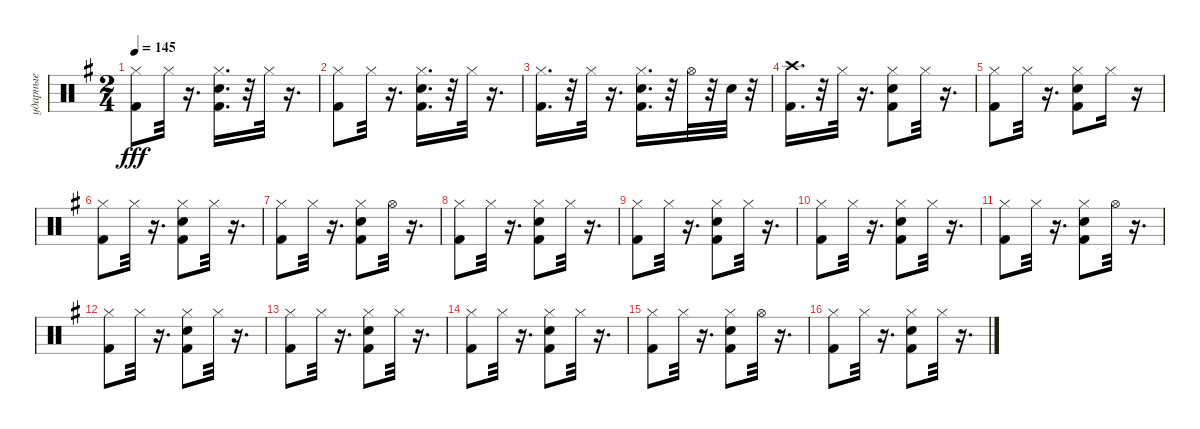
\track ("ударные" "ударные") {instrument percussion}
\staff {score}
\articulation defaults
\ts (2 4)
\tempo 145
\clef neutral
\ks eminor
("Kick (hit) 2" "Hi-Hat (closed)").8{dy fff} "Hi-Hat (closed)".32 r.16{d} ("Snare (hit) 2" "Kick (hit) 2" "Hi-Hat (closed)").16{d} r.32 "Hi-Hat (closed)".32 r.16{d} |
("Kick (hit) 2" "Hi-Hat (closed)").8 "Hi-Hat (closed)".32 r.16{d} ("Snare (hit) 2" "Kick (hit) 2" "Hi-Hat (closed)").16{d} r.32 "Hi-Hat (closed)".32 r.16{d} |
("Kick (hit) 2" "Hi-Hat (closed)").16{d} r.32 "Hi-Hat (closed)".32 r.16{d} ("Kick (hit) 2" "Hi-Hat (closed)" "Snare (hit) 2").16{d} r.32 "Hi-Hat (open)".32 r.32 "Snare (hit) 2".32 r.32 |
("Kick (hit) 2" "Crash high (hit)").16{d} r.32 "Hi-Hat (closed)".32 r.16{d} ("Kick (hit) 2" "Snare (hit) 2" "Hi-Hat (closed)").8 "Hi-Hat (closed)".32 r.16{d} |
("Kick (hit) 2" "Hi-Hat (closed)").8 "Hi-Hat (closed)".32 r.16{d} ("Snare (hit) 2" "Kick (hit) 2" "Hi-Hat (closed)").8 "Hi-Hat (closed)".16 r.16 |
("Kick (hit) 2" "Hi-Hat (closed)").8 "Hi-Hat (closed)".32 r.16{d} ("Hi-Hat (closed)" "Snare (hit) 2" "Kick (hit) 2").8 "Hi-Hat (closed)".32 r.16{d} |
("Kick (hit) 2" "Hi-Hat (closed)").8 "Hi-Hat (closed)".32 r.16{d} ("Snare (hit) 2" "Hi-Hat (closed)" "Kick (hit) 2").8 "Hi-Hat (open)".32 r.16{d} |
("Kick (hit) 2" "Hi-Hat (closed)").8 "Hi-Hat (closed)".32 r.16{d} ("Kick (hit) 2" "Hi-Hat (closed)" "Snare (hit) 2").8 "Hi-Hat (closed)".32 r.16{d} |
("Kick (hit) 2" "Hi-Hat (closed)").8 "Hi-Hat (closed)".32 r.16{d} ("Kick (hit) 2" "Hi-Hat (closed)" "Snare (hit) 2").8 "Hi-Hat (closed)".32 r.16{d} |
("Kick (hit) 2" "Hi-Hat (closed)").8 "Hi-Hat (closed)".32 r.16{d} ("Snare (hit) 2" "Kick (hit) 2" "Hi-Hat (closed)").8 "Hi-Hat (closed)".32 r.16{d} |
("Kick (hit) 2" "Hi-Hat (closed)").8 "Hi-Hat (closed)".32 r.16{d} ("Snare (hit) 2" "Hi-Hat (closed)" "Kick (hit) 2").8 "Hi-Hat (open)".32 r.16{d} |
("Kick (hit) 2" "Hi-Hat (closed)").8 "Hi-Hat (closed)".32 r.16{d} ("Snare (hit) 2" "Kick (hit) 2" "Hi-Hat (closed)").8 "Hi-Hat (closed)".32 r.16{d} |
("Kick (hit) 2" "Hi-Hat (closed)").8 "Hi-Hat (closed)".32 r.16{d} ("Snare (hit) 2" "Kick (hit) 2" "Hi-Hat (closed)").8 "Hi-Hat (closed)".32 r.16{d} |
("Kick (hit) 2" "Hi-Hat (closed)").8 "Hi-Hat (closed)".32 r.16{d} ("Kick (hit) 2" "Hi-Hat (closed)" "Snare (hit) 2").8 "Hi-Hat (closed)".32 r.16{d} |
("Kick (hit) 2" "Hi-Hat (closed)").8 "Hi-Hat (closed)".32 r.16{d} ("Hi-Hat (closed)" "Snare (hit) 2" "Kick (hit) 2").8 "Hi-Hat (open)".32 r.16{d} |
("Kick (hit) 2" "Hi-Hat (closed)").8 "Hi-Hat (closed)".32 r.16{d} ("Kick (hit) 2" "Hi-Hat (closed)" "Snare (hit) 2").8 "Hi-Hat (closed)".32 r.16{d}
